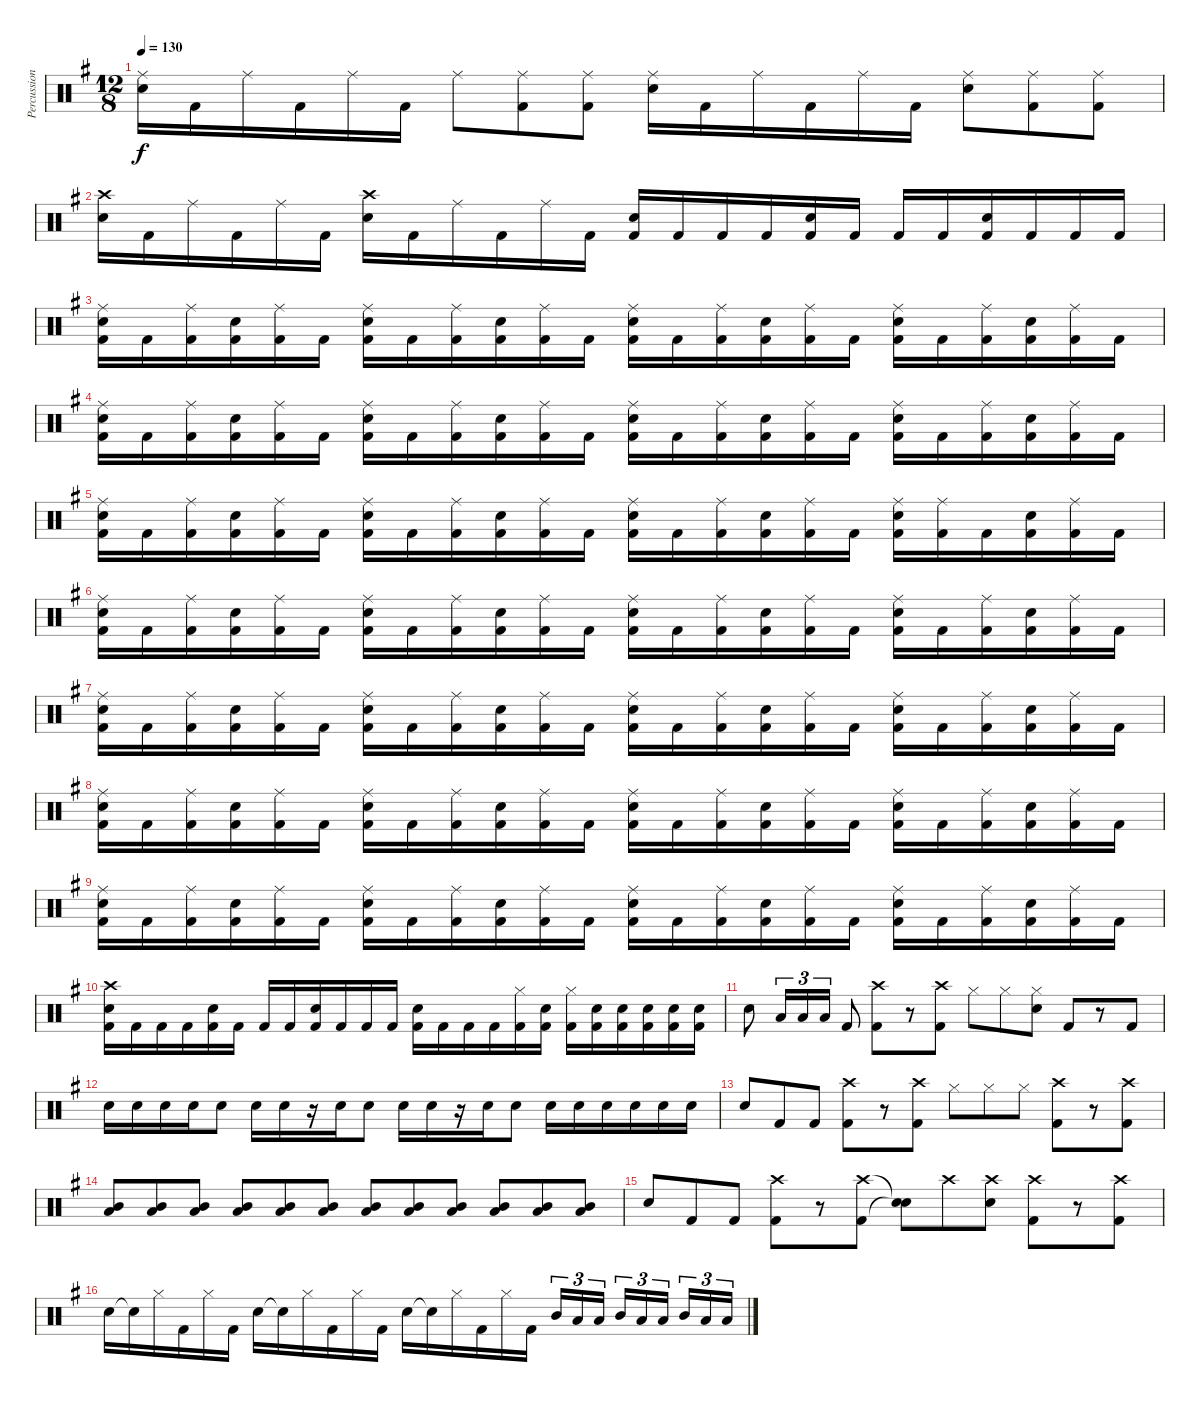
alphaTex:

\track ("Percussion" "Percussion") {instrument percussion}
\staff {score}
\articulation defaults
\ts (12 8)
\tempo 130
\clef neutral
\ks g
("Ride (middle)" "Snare (hit) 2").16{dy f} "Kick (hit) 2".16 "Ride (middle)".16 "Kick (hit) 2".16 "Ride (middle)".16 "Kick (hit) 2".16 "Ride (middle)".8 ("Ride (middle)" "Kick (hit) 2").8 ("Ride (middle)" "Kick (hit) 2").8 ("Ride (middle)" "Snare (hit) 2").16 "Kick (hit) 2".16 "Ride (middle)".16 "Kick (hit) 2".16 "Ride (middle)".16 "Kick (hit) 2".16 ("Ride (middle)" "Snare (hit) 2").8 ("Ride (middle)" "Kick (hit) 2").8 ("Ride (middle)" "Kick (hit) 2").8 |
("Crash high (hit)" "Snare (hit) 2").16 "Kick (hit) 2".16 "Ride (middle)".16 "Kick (hit) 2".16 "Ride (middle)".16 "Kick (hit) 2".16 ("Crash high (hit)" "Snare (hit) 2").16 "Kick (hit) 2".16 "Ride (middle)".16 "Kick (hit) 2".16 "Ride (middle)".16 "Kick (hit) 2".16 ("Snare (hit) 2" "Kick (hit) 2").16 "Kick (hit) 2".16 "Kick (hit) 2".16 "Kick (hit) 2".16 ("Snare (hit) 2" "Kick (hit) 2").16 "Kick (hit) 2".16 "Kick (hit) 2".16 "Kick (hit) 2".16 ("Snare (hit) 2" "Kick (hit) 2").16 "Kick (hit) 2".16 "Kick (hit) 2".16 "Kick (hit) 2".16 |
("Ride (middle)" "Snare (hit) 2" "Kick (hit) 2").16 "Kick (hit) 2".16 ("Ride (middle)" "Kick (hit) 2").16 ("Snare (hit) 2" "Kick (hit) 2").16 ("Ride (middle)" "Kick (hit) 2").16 "Kick (hit) 2".16 ("Ride (middle)" "Snare (hit) 2" "Kick (hit) 2").16 "Kick (hit) 2".16 ("Ride (middle)" "Kick (hit) 2").16 ("Snare (hit) 2" "Kick (hit) 2").16 ("Ride (middle)" "Kick (hit) 2").16 "Kick (hit) 2".16 ("Ride (middle)" "Snare (hit) 2" "Kick (hit) 2").16 "Kick (hit) 2".16 ("Ride (middle)" "Kick (hit) 2").16 ("Snare (hit) 2" "Kick (hit) 2").16 ("Ride (middle)" "Kick (hit) 2").16 "Kick (hit) 2".16 ("Ride (middle)" "Snare (hit) 2" "Kick (hit) 2").16 "Kick (hit) 2".16 ("Ride (middle)" "Kick (hit) 2").16 ("Snare (hit) 2" "Kick (hit) 2").16 ("Ride (middle)" "Kick (hit) 2").16 "Kick (hit) 2".16 |
("Ride (middle)" "Snare (hit) 2" "Kick (hit) 2").16 "Kick (hit) 2".16 ("Ride (middle)" "Kick (hit) 2").16 ("Snare (hit) 2" "Kick (hit) 2").16 ("Ride (middle)" "Kick (hit) 2").16 "Kick (hit) 2".16 ("Ride (middle)" "Snare (hit) 2" "Kick (hit) 2").16 "Kick (hit) 2".16 ("Ride (middle)" "Kick (hit) 2").16 ("Snare (hit) 2" "Kick (hit) 2").16 ("Ride (middle)" "Kick (hit) 2").16 "Kick (hit) 2".16 ("Ride (middle)" "Snare (hit) 2" "Kick (hit) 2").16 "Kick (hit) 2".16 ("Ride (middle)" "Kick (hit) 2").16 ("Snare (hit) 2" "Kick (hit) 2").16 ("Ride (middle)" "Kick (hit) 2").16 "Kick (hit) 2".16 ("Ride (middle)" "Snare (hit) 2" "Kick (hit) 2").16 "Kick (hit) 2".16 ("Ride (middle)" "Kick (hit) 2").16 ("Snare (hit) 2" "Kick (hit) 2").16 ("Ride (middle)" "Kick (hit) 2").16 "Kick (hit) 2".16 |
("Ride (middle)" "Snare (hit) 2" "Kick (hit) 2").16 "Kick (hit) 2".16 ("Ride (middle)" "Kick (hit) 2").16 ("Snare (hit) 2" "Kick (hit) 2").16 ("Ride (middle)" "Kick (hit) 2").16 "Kick (hit) 2".16 ("Ride (middle)" "Snare (hit) 2" "Kick (hit) 2").16 "Kick (hit) 2".16 ("Ride (middle)" "Kick (hit) 2").16 ("Snare (hit) 2" "Kick (hit) 2").16 ("Ride (middle)" "Kick (hit) 2").16 "Kick (hit) 2".16 ("Ride (middle)" "Snare (hit) 2" "Kick (hit) 2").16 "Kick (hit) 2".16 ("Ride (middle)" "Kick (hit) 2").16 ("Snare (hit) 2" "Kick (hit) 2").16 ("Ride (middle)" "Kick (hit) 2").16 "Kick (hit) 2".16 ("Ride (middle)" "Snare (hit) 2" "Kick (hit) 2").16 ("Ride (middle)" "Kick (hit) 2").16 "Kick (hit) 2".16 ("Snare (hit) 2" "Kick (hit) 2").16 ("Ride (middle)" "Kick (hit) 2").16 "Kick (hit) 2".16 |
("Ride (middle)" "Snare (hit) 2" "Kick (hit) 2").16 "Kick (hit) 2".16 ("Ride (middle)" "Kick (hit) 2").16 ("Snare (hit) 2" "Kick (hit) 2").16 ("Ride (middle)" "Kick (hit) 2").16 "Kick (hit) 2".16 ("Ride (middle)" "Snare (hit) 2" "Kick (hit) 2").16 "Kick (hit) 2".16 ("Ride (middle)" "Kick (hit) 2").16 ("Snare (hit) 2" "Kick (hit) 2").16 ("Ride (middle)" "Kick (hit) 2").16 "Kick (hit) 2".16 ("Ride (middle)" "Snare (hit) 2" "Kick (hit) 2").16 "Kick (hit) 2".16 ("Ride (middle)" "Kick (hit) 2").16 ("Snare (hit) 2" "Kick (hit) 2").16 ("Ride (middle)" "Kick (hit) 2").16 "Kick (hit) 2".16 ("Ride (middle)" "Snare (hit) 2" "Kick (hit) 2").16 "Kick (hit) 2".16 ("Ride (middle)" "Kick (hit) 2").16 ("Snare (hit) 2" "Kick (hit) 2").16 ("Ride (middle)" "Kick (hit) 2").16 "Kick (hit) 2".16 |
("Ride (middle)" "Snare (hit) 2" "Kick (hit) 2").16 "Kick (hit) 2".16 ("Ride (middle)" "Kick (hit) 2").16 ("Snare (hit) 2" "Kick (hit) 2").16 ("Ride (middle)" "Kick (hit) 2").16 "Kick (hit) 2".16 ("Ride (middle)" "Snare (hit) 2" "Kick (hit) 2").16 "Kick (hit) 2".16 ("Ride (middle)" "Kick (hit) 2").16 ("Snare (hit) 2" "Kick (hit) 2").16 ("Ride (middle)" "Kick (hit) 2").16 "Kick (hit) 2".16 ("Ride (middle)" "Snare (hit) 2" "Kick (hit) 2").16 "Kick (hit) 2".16 ("Ride (middle)" "Kick (hit) 2").16 ("Snare (hit) 2" "Kick (hit) 2").16 ("Ride (middle)" "Kick (hit) 2").16 "Kick (hit) 2".16 ("Ride (middle)" "Snare (hit) 2" "Kick (hit) 2").16 "Kick (hit) 2".16 ("Ride (middle)" "Kick (hit) 2").16 ("Snare (hit) 2" "Kick (hit) 2").16 ("Ride (middle)" "Kick (hit) 2").16 "Kick (hit) 2".16 |
("Ride (middle)" "Snare (hit) 2" "Kick (hit) 2").16 "Kick (hit) 2".16 ("Ride (middle)" "Kick (hit) 2").16 ("Snare (hit) 2" "Kick (hit) 2").16 ("Ride (middle)" "Kick (hit) 2").16 "Kick (hit) 2".16 ("Ride (middle)" "Snare (hit) 2" "Kick (hit) 2").16 "Kick (hit) 2".16 ("Ride (middle)" "Kick (hit) 2").16 ("Snare (hit) 2" "Kick (hit) 2").16 ("Ride (middle)" "Kick (hit) 2").16 "Kick (hit) 2".16 ("Ride (middle)" "Snare (hit) 2" "Kick (hit) 2").16 "Kick (hit) 2".16 ("Ride (middle)" "Kick (hit) 2").16 ("Snare (hit) 2" "Kick (hit) 2").16 ("Ride (middle)" "Kick (hit) 2").16 "Kick (hit) 2".16 ("Ride (middle)" "Snare (hit) 2" "Kick (hit) 2").16 "Kick (hit) 2".16 ("Ride (middle)" "Kick (hit) 2").16 ("Snare (hit) 2" "Kick (hit) 2").16 ("Ride (middle)" "Kick (hit) 2").16 "Kick (hit) 2".16 |
("Ride (middle)" "Snare (hit) 2" "Kick (hit) 2").16 "Kick (hit) 2".16 ("Ride (middle)" "Kick (hit) 2").16 ("Snare (hit) 2" "Kick (hit) 2").16 ("Ride (middle)" "Kick (hit) 2").16 "Kick (hit) 2".16 ("Ride (middle)" "Snare (hit) 2" "Kick (hit) 2").16 "Kick (hit) 2".16 ("Ride (middle)" "Kick (hit) 2").16 ("Snare (hit) 2" "Kick (hit) 2").16 ("Ride (middle)" "Kick (hit) 2").16 "Kick (hit) 2".16 ("Ride (middle)" "Snare (hit) 2" "Kick (hit) 2").16 "Kick (hit) 2".16 ("Ride (middle)" "Kick (hit) 2").16 ("Snare (hit) 2" "Kick (hit) 2").16 ("Ride (middle)" "Kick (hit) 2").16 "Kick (hit) 2".16 ("Ride (middle)" "Snare (hit) 2" "Kick (hit) 2").16 "Kick (hit) 2".16 ("Ride (middle)" "Kick (hit) 2").16 ("Snare (hit) 2" "Kick (hit) 2").16 ("Ride (middle)" "Kick (hit) 2").16 "Kick (hit) 2".16 |
("Crash high (hit)" "Snare (hit) 2" "Kick (hit) 2").16 "Kick (hit) 2".16 "Kick (hit) 2".16 "Kick (hit) 2".16 ("Snare (hit) 2" "Kick (hit) 2").16 "Kick (hit) 2".16 "Kick (hit) 2".16 "Kick (hit) 2".16 ("Snare (hit) 2" "Kick (hit) 2").16 "Kick (hit) 2".16 "Kick (hit) 2".16 "Kick (hit) 2".16 ("Snare (hit) 2" "Kick (hit) 2").16 "Kick (hit) 2".16 "Kick (hit) 2".16 "Kick (hit) 2".16 ("Hi-Hat (closed)" "Kick (hit) 2").16 ("Snare (hit) 2" "Kick (hit) 2").16 ("Hi-Hat (closed)" "Kick (hit) 2").16 ("Snare (hit) 2" "Kick (hit) 2").16 ("Snare (hit) 2" "Kick (hit) 2").16 ("Snare (hit) 2" "Kick (hit) 2").16 ("Snare (hit) 2" "Kick (hit) 2").16 ("Snare (hit) 2" "Kick (hit) 2").16 |
"Snare (hit) 2".8 "Low Tom (hit)".16{tu (3 2)} "Low Tom (hit)".16{tu (3 2)} "Low Tom (hit)".16{tu (3 2)} "Kick (hit) 2".8 ("Crash high (hit)" "Kick (hit) 2").8 r.8 ("Crash high (hit)" "Kick (hit) 2").8 "Hi-Hat (closed)".8 "Hi-Hat (closed)".8 ("Hi-Hat (closed)" "Snare (hit) 2").8 "Kick (hit) 2".8 r.8 "Kick (hit) 2".8 |
"Snare (hit) 2".16 "Snare (hit) 2".16 "Snare (hit) 2".16 "Snare (hit) 2".16 "Snare (hit) 2".8 "Snare (hit) 2".16 "Snare (hit) 2".16 r.16 "Snare (hit) 2".16 "Snare (hit) 2".8 "Snare (hit) 2".16 "Snare (hit) 2".16 r.16 "Snare (hit) 2".16 "Snare (hit) 2".8 "Snare (hit) 2".16 "Snare (hit) 2".16 "Snare (hit) 2".16 "Snare (hit) 2".16 "Snare (hit) 2".16 "Snare (hit) 2".16 |
"Snare (hit) 2".8 "Kick (hit) 2".8 "Kick (hit) 2".8 ("Crash high (hit)" "Kick (hit) 2").8 r.8 ("Crash high (hit)" "Kick (hit) 2").8 "Hi-Hat (closed)".8 "Hi-Hat (closed)".8 "Hi-Hat (closed)".8 ("Crash high (hit)" "Kick (hit) 2").8 r.8 ("Crash high (hit)" "Kick (hit) 2").8 |
("Mid Tom (hit)" "Low Tom (hit)").8 ("Mid Tom (hit)" "Low Tom (hit)").8 ("Mid Tom (hit)" "Low Tom (hit)").8 ("Mid Tom (hit)" "Low Tom (hit)").8 ("Mid Tom (hit)" "Low Tom (hit)").8 ("Mid Tom (hit)" "Low Tom (hit)").8 ("Mid Tom (hit)" "Low Tom (hit)").8 ("Mid Tom (hit)" "Low Tom (hit)").8 ("Mid Tom (hit)" "Low Tom (hit)").8 ("Mid Tom (hit)" "Low Tom (hit)").8 ("Mid Tom (hit)" "Low Tom (hit)").8 ("Mid Tom (hit)" "Low Tom (hit)").8 |
"Snare (hit) 2".8 "Kick (hit) 2".8 "Kick (hit) 2".8 ("Crash high (hit)" "Kick (hit) 2").8 r.8 ("Crash high (hit)" "Kick (hit) 2").8 ("Snare (hit)"{t} "Snare (hit)"{t}).8 "Crash high (hit)".8 ("Crash high (hit)" "Snare (hit) 2").8 ("Crash high (hit)" "Kick (hit) 2").8 r.8 ("Crash high (hit)" "Kick (hit) 2").8 |
"Snare (hit) 2".16 "Snare (hit)"{t}.16 "Hi-Hat (closed)".16 "Kick (hit) 2".16 "Hi-Hat (closed)".16 "Kick (hit) 2".16 "Snare (hit) 2".16 "Snare (hit)"{t}.16 "Hi-Hat (closed)".16 "Kick (hit) 2".16 "Hi-Hat (closed)".16 "Kick (hit) 2".16 "Snare (hit) 2".16 "Snare (hit)"{t}.16 "Hi-Hat (closed)".16 "Kick (hit) 2".16 "Hi-Hat (closed)".16 "Kick (hit) 2".16 "Mid Tom (hit)".16{tu (3 2)} "Low Tom (hit)".16{tu (3 2)} "Low Tom (hit)".16{tu (3 2) beam splitsecondary} "Mid Tom (hit)".16{tu (3 2)} "Low Tom (hit)".16{tu (3 2)} "Low Tom (hit)".16{tu (3 2) beam splitsecondary} "Mid Tom (hit)".16{tu (3 2)} "Low Tom (hit)".16{tu (3 2)} "Low Tom (hit)".16{tu (3 2)}
